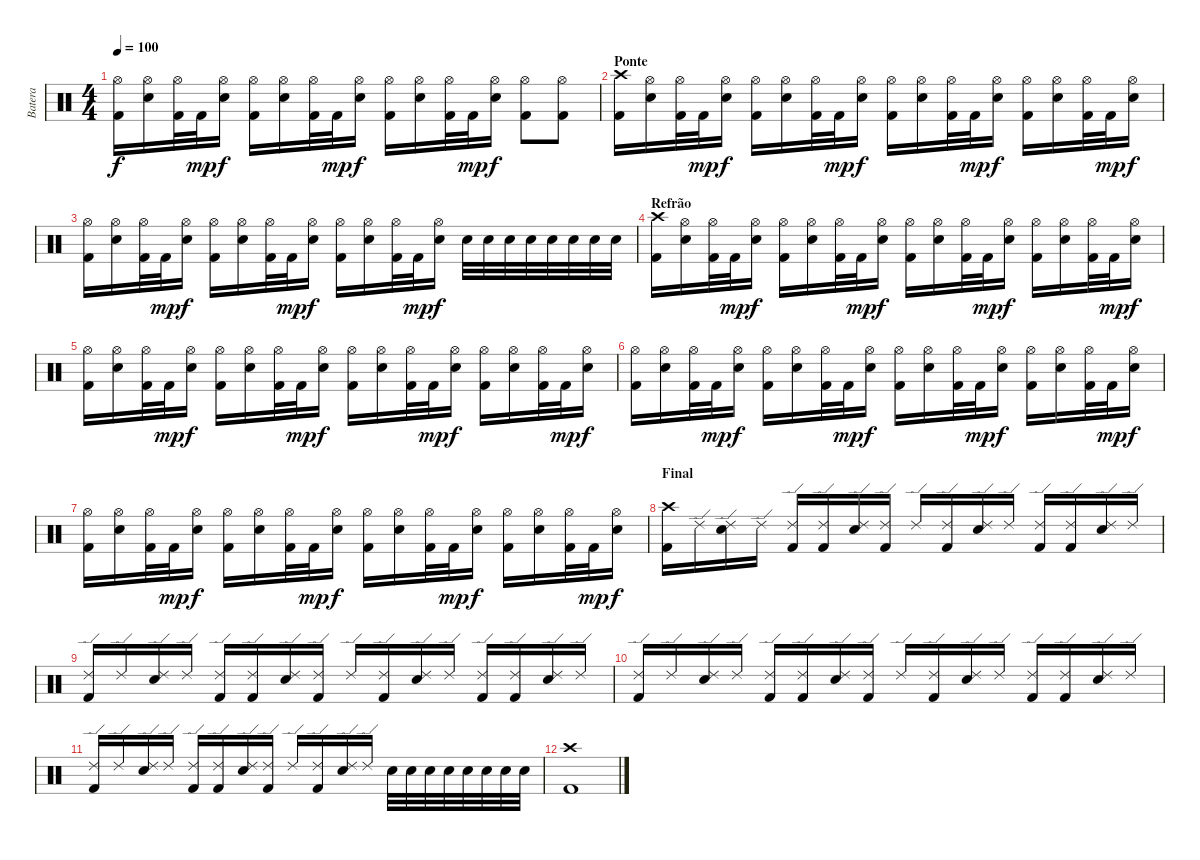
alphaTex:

\track ("Batera" "Batera") {instrument percussion}
\staff {score}
\articulation defaults
\ts (4 4)
\tempo 100
\clef neutral
\ks c
("Hi-Hat (open)" "Kick (hit) 2").16{dy f} ("Hi-Hat (open)" "Snare (hit) 2").16 ("Hi-Hat (open)" "Kick (hit) 2").32 "Kick (hit) 2".32{dy mp} ("Hi-Hat (open)" "Snare (hit) 2").16{dy f} ("Hi-Hat (open)" "Kick (hit) 2").16 ("Hi-Hat (open)" "Snare (hit) 2").16 ("Hi-Hat (open)" "Kick (hit) 2").32 "Kick (hit) 2".32{dy mp} ("Hi-Hat (open)" "Snare (hit) 2").16{dy f} ("Hi-Hat (open)" "Kick (hit) 2").16 ("Hi-Hat (open)" "Snare (hit) 2").16 ("Hi-Hat (open)" "Kick (hit) 2").32 "Kick (hit) 2".32{dy mp} ("Hi-Hat (open)" "Snare (hit) 2").16{dy f} ("Hi-Hat (open)" "Kick (hit) 2").8 ("Hi-Hat (open)" "Kick (hit) 2").8 |
\section ("" "Ponte")
("Crash high (hit)" "Kick (hit) 2").16 ("Hi-Hat (open)" "Snare (hit) 2").16 ("Hi-Hat (open)" "Kick (hit) 2").32 "Kick (hit) 2".32{dy mp} ("Hi-Hat (open)" "Snare (hit) 2").16{dy f} ("Hi-Hat (open)" "Kick (hit) 2").16 ("Hi-Hat (open)" "Snare (hit) 2").16 ("Hi-Hat (open)" "Kick (hit) 2").32 "Kick (hit) 2".32{dy mp} ("Hi-Hat (open)" "Snare (hit) 2").16{dy f} ("Hi-Hat (open)" "Kick (hit) 2").16 ("Hi-Hat (open)" "Snare (hit) 2").16 ("Hi-Hat (open)" "Kick (hit) 2").32 "Kick (hit) 2".32{dy mp} ("Hi-Hat (open)" "Snare (hit) 2").16{dy f} ("Hi-Hat (open)" "Kick (hit) 2").16 ("Hi-Hat (open)" "Snare (hit) 2").16 ("Hi-Hat (open)" "Kick (hit) 2").32 "Kick (hit) 2".32{dy mp} ("Hi-Hat (open)" "Snare (hit) 2").16{dy f} |
("Hi-Hat (open)" "Kick (hit) 2").16 ("Hi-Hat (open)" "Snare (hit) 2").16 ("Hi-Hat (open)" "Kick (hit) 2").32 "Kick (hit) 2".32{dy mp} ("Hi-Hat (open)" "Snare (hit) 2").16{dy f} ("Hi-Hat (open)" "Kick (hit) 2").16 ("Hi-Hat (open)" "Snare (hit) 2").16 ("Hi-Hat (open)" "Kick (hit) 2").32 "Kick (hit) 2".32{dy mp} ("Hi-Hat (open)" "Snare (hit) 2").16{dy f} ("Hi-Hat (open)" "Kick (hit) 2").16 ("Hi-Hat (open)" "Snare (hit) 2").16 ("Hi-Hat (open)" "Kick (hit) 2").32 "Kick (hit) 2".32{dy mp} ("Hi-Hat (open)" "Snare (hit) 2").16{dy f} "Snare (hit) 2".32 "Snare (hit) 2".32 "Snare (hit) 2".32 "Snare (hit) 2".32 "Snare (hit) 2".32 "Snare (hit) 2".32 "Snare (hit) 2".32 "Snare (hit) 2".32 |
\section ("" "Refrão")
("Crash high (hit)" "Kick (hit) 2").16 ("Hi-Hat (open)" "Snare (hit) 2").16 ("Hi-Hat (open)" "Kick (hit) 2").32 "Kick (hit) 2".32{dy mp} ("Hi-Hat (open)" "Snare (hit) 2").16{dy f} ("Hi-Hat (open)" "Kick (hit) 2").16 ("Hi-Hat (open)" "Snare (hit) 2").16 ("Hi-Hat (open)" "Kick (hit) 2").32 "Kick (hit) 2".32{dy mp} ("Hi-Hat (open)" "Snare (hit) 2").16{dy f} ("Hi-Hat (open)" "Kick (hit) 2").16 ("Hi-Hat (open)" "Snare (hit) 2").16 ("Hi-Hat (open)" "Kick (hit) 2").32 "Kick (hit) 2".32{dy mp} ("Hi-Hat (open)" "Snare (hit) 2").16{dy f} ("Hi-Hat (open)" "Kick (hit) 2").16 ("Hi-Hat (open)" "Snare (hit) 2").16 ("Hi-Hat (open)" "Kick (hit) 2").32 "Kick (hit) 2".32{dy mp} ("Hi-Hat (open)" "Snare (hit) 2").16{dy f} |
("Hi-Hat (open)" "Kick (hit) 2").16 ("Hi-Hat (open)" "Snare (hit) 2").16 ("Hi-Hat (open)" "Kick (hit) 2").32 "Kick (hit) 2".32{dy mp} ("Hi-Hat (open)" "Snare (hit) 2").16{dy f} ("Hi-Hat (open)" "Kick (hit) 2").16 ("Hi-Hat (open)" "Snare (hit) 2").16 ("Hi-Hat (open)" "Kick (hit) 2").32 "Kick (hit) 2".32{dy mp} ("Hi-Hat (open)" "Snare (hit) 2").16{dy f} ("Hi-Hat (open)" "Kick (hit) 2").16 ("Hi-Hat (open)" "Snare (hit) 2").16 ("Hi-Hat (open)" "Kick (hit) 2").32 "Kick (hit) 2".32{dy mp} ("Hi-Hat (open)" "Snare (hit) 2").16{dy f} ("Hi-Hat (open)" "Kick (hit) 2").16 ("Hi-Hat (open)" "Snare (hit) 2").16 ("Hi-Hat (open)" "Kick (hit) 2").32 "Kick (hit) 2".32{dy mp} ("Hi-Hat (open)" "Snare (hit) 2").16{dy f} |
("Hi-Hat (open)" "Kick (hit) 2").16 ("Hi-Hat (open)" "Snare (hit) 2").16 ("Hi-Hat (open)" "Kick (hit) 2").32 "Kick (hit) 2".32{dy mp} ("Hi-Hat (open)" "Snare (hit) 2").16{dy f} ("Hi-Hat (open)" "Kick (hit) 2").16 ("Hi-Hat (open)" "Snare (hit) 2").16 ("Hi-Hat (open)" "Kick (hit) 2").32 "Kick (hit) 2".32{dy mp} ("Hi-Hat (open)" "Snare (hit) 2").16{dy f} ("Hi-Hat (open)" "Kick (hit) 2").16 ("Hi-Hat (open)" "Snare (hit) 2").16 ("Hi-Hat (open)" "Kick (hit) 2").32 "Kick (hit) 2".32{dy mp} ("Hi-Hat (open)" "Snare (hit) 2").16{dy f} ("Hi-Hat (open)" "Kick (hit) 2").16 ("Hi-Hat (open)" "Snare (hit) 2").16 ("Hi-Hat (open)" "Kick (hit) 2").32 "Kick (hit) 2".32{dy mp} ("Hi-Hat (open)" "Snare (hit) 2").16{dy f} |
("Hi-Hat (open)" "Kick (hit) 2").16 ("Hi-Hat (open)" "Snare (hit) 2").16 ("Hi-Hat (open)" "Kick (hit) 2").32 "Kick (hit) 2".32{dy mp} ("Hi-Hat (open)" "Snare (hit) 2").16{dy f} ("Hi-Hat (open)" "Kick (hit) 2").16 ("Hi-Hat (open)" "Snare (hit) 2").16 ("Hi-Hat (open)" "Kick (hit) 2").32 "Kick (hit) 2".32{dy mp} ("Hi-Hat (open)" "Snare (hit) 2").16{dy f} ("Hi-Hat (open)" "Kick (hit) 2").16 ("Hi-Hat (open)" "Snare (hit) 2").16 ("Hi-Hat (open)" "Kick (hit) 2").32 "Kick (hit) 2".32{dy mp} ("Hi-Hat (open)" "Snare (hit) 2").16{dy f} ("Hi-Hat (open)" "Kick (hit) 2").16 ("Hi-Hat (open)" "Snare (hit) 2").16 ("Hi-Hat (open)" "Kick (hit) 2").32 "Kick (hit) 2".32{dy mp} ("Hi-Hat (open)" "Snare (hit) 2").16{dy f} |
\section ("" "Final")
("Crash high (hit)" "Kick (hit) 2").16 "Ride (edge) 2".16 ("Ride (edge) 2" "Snare (hit) 2").16 "Ride (edge) 2".16 ("Ride (edge) 2" "Kick (hit) 2").16 ("Ride (edge) 2" "Kick (hit) 2").16 ("Ride (edge) 2" "Snare (hit) 2").16 ("Ride (edge) 2" "Kick (hit) 2").16 "Ride (edge) 2".16 ("Ride (edge) 2" "Kick (hit) 2").16 ("Ride (edge) 2" "Snare (hit) 2").16 "Ride (edge) 2".16 ("Ride (edge) 2" "Kick (hit) 2").16 ("Ride (edge) 2" "Kick (hit) 2").16 ("Ride (edge) 2" "Snare (hit) 2").16 "Ride (edge) 2".16 |
("Ride (edge) 2" "Kick (hit) 2").16 "Ride (edge) 2".16 ("Ride (edge) 2" "Snare (hit) 2").16 "Ride (edge) 2".16 ("Ride (edge) 2" "Kick (hit) 2").16 ("Ride (edge) 2" "Kick (hit) 2").16 ("Ride (edge) 2" "Snare (hit) 2").16 ("Ride (edge) 2" "Kick (hit) 2").16 "Ride (edge) 2".16 ("Ride (edge) 2" "Kick (hit) 2").16 ("Ride (edge) 2" "Snare (hit) 2").16 "Ride (edge) 2".16 ("Ride (edge) 2" "Kick (hit) 2").16 ("Ride (edge) 2" "Kick (hit) 2").16 ("Ride (edge) 2" "Snare (hit) 2").16 "Ride (edge) 2".16 |
("Ride (edge) 2" "Kick (hit) 2").16 "Ride (edge) 2".16 ("Ride (edge) 2" "Snare (hit) 2").16 "Ride (edge) 2".16 ("Ride (edge) 2" "Kick (hit) 2").16 ("Ride (edge) 2" "Kick (hit) 2").16 ("Ride (edge) 2" "Snare (hit) 2").16 ("Ride (edge) 2" "Kick (hit) 2").16 "Ride (edge) 2".16 ("Ride (edge) 2" "Kick (hit) 2").16 ("Ride (edge) 2" "Snare (hit) 2").16 "Ride (edge) 2".16 ("Ride (edge) 2" "Kick (hit) 2").16 ("Ride (edge) 2" "Kick (hit) 2").16 ("Ride (edge) 2" "Snare (hit) 2").16 "Ride (edge) 2".16 |
("Ride (edge) 2" "Kick (hit) 2").16 "Ride (edge) 2".16 ("Ride (edge) 2" "Snare (hit) 2").16 "Ride (edge) 2".16 ("Ride (edge) 2" "Kick (hit) 2").16 ("Ride (edge) 2" "Kick (hit) 2").16 ("Ride (edge) 2" "Snare (hit) 2").16 ("Ride (edge) 2" "Kick (hit) 2").16 "Ride (edge) 2".16 ("Ride (edge) 2" "Kick (hit) 2").16 ("Ride (edge) 2" "Snare (hit) 2").16 "Ride (edge) 2".16 "Snare (hit) 2".32 "Snare (hit) 2".32 "Snare (hit) 2".32 "Snare (hit) 2".32 "Snare (hit) 2".32 "Snare (hit) 2".32 "Snare (hit) 2".32 "Snare (hit) 2".32 |
("Crash high (hit)" "Kick (hit) 2").1
